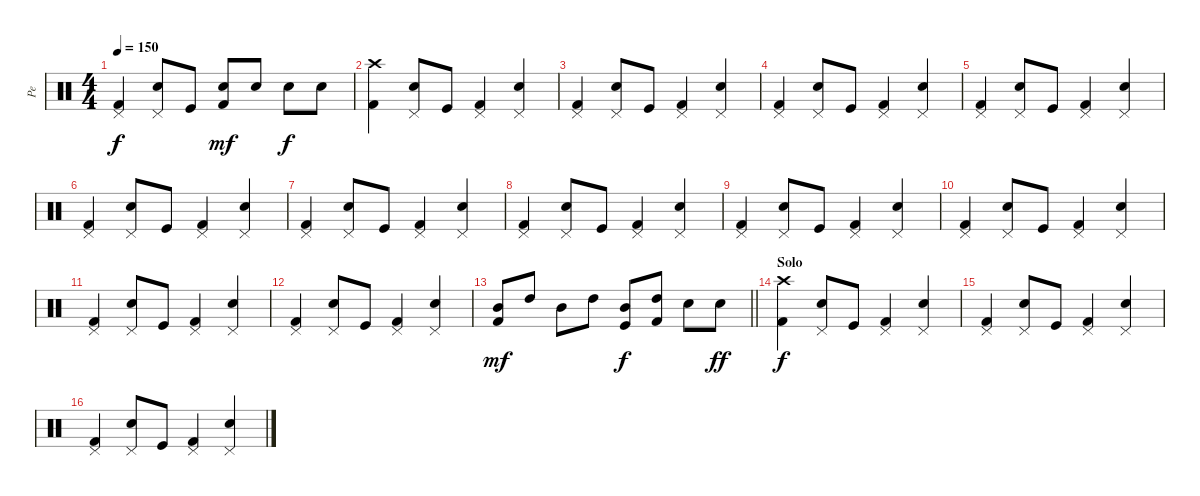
\track ("Pe" "Pe") {instrument percussion}
\staff {score}
\articulation defaults
\ts (4 4)
\tempo 150
\clef neutral
\ks c
("Kick (hit) 2" "Pedal Hi-Hat (hit)").4{dy f} ("Electric Snare (hit)" "Pedal Hi-Hat (hit)").8 "Kick (hit)".8 ("Kick (hit) 2" "Electric Snare (hit)").8{dy mf} "Electric Snare (hit)".8 "Electric Snare (hit)".8{dy f} "Electric Snare (hit)".8 |
("Kick (hit) 2" "Crash high (hit)").4 ("Electric Snare (hit)" "Pedal Hi-Hat (hit)").8 "Kick (hit)".8 ("Kick (hit) 2" "Pedal Hi-Hat (hit)").4 ("Electric Snare (hit)" "Pedal Hi-Hat (hit)").4 |
("Kick (hit) 2" "Pedal Hi-Hat (hit)").4 ("Electric Snare (hit)" "Pedal Hi-Hat (hit)").8 "Kick (hit)".8 ("Kick (hit) 2" "Pedal Hi-Hat (hit)").4 ("Electric Snare (hit)" "Pedal Hi-Hat (hit)").4 |
("Kick (hit) 2" "Pedal Hi-Hat (hit)").4 ("Electric Snare (hit)" "Pedal Hi-Hat (hit)").8 "Kick (hit)".8 ("Kick (hit) 2" "Pedal Hi-Hat (hit)").4 ("Electric Snare (hit)" "Pedal Hi-Hat (hit)").4 |
("Kick (hit) 2" "Pedal Hi-Hat (hit)").4 ("Electric Snare (hit)" "Pedal Hi-Hat (hit)").8 "Kick (hit)".8 ("Kick (hit) 2" "Pedal Hi-Hat (hit)").4 ("Electric Snare (hit)" "Pedal Hi-Hat (hit)").4 |
("Kick (hit) 2" "Pedal Hi-Hat (hit)").4 ("Electric Snare (hit)" "Pedal Hi-Hat (hit)").8 "Kick (hit)".8 ("Kick (hit) 2" "Pedal Hi-Hat (hit)").4 ("Electric Snare (hit)" "Pedal Hi-Hat (hit)").4 |
("Kick (hit) 2" "Pedal Hi-Hat (hit)").4 ("Electric Snare (hit)" "Pedal Hi-Hat (hit)").8 "Kick (hit)".8 ("Kick (hit) 2" "Pedal Hi-Hat (hit)").4 ("Electric Snare (hit)" "Pedal Hi-Hat (hit)").4 |
("Kick (hit) 2" "Pedal Hi-Hat (hit)").4 ("Electric Snare (hit)" "Pedal Hi-Hat (hit)").8 "Kick (hit)".8 ("Kick (hit) 2" "Pedal Hi-Hat (hit)").4 ("Electric Snare (hit)" "Pedal Hi-Hat (hit)").4 |
("Kick (hit) 2" "Pedal Hi-Hat (hit)").4 ("Electric Snare (hit)" "Pedal Hi-Hat (hit)").8 "Kick (hit)".8 ("Kick (hit) 2" "Pedal Hi-Hat (hit)").4 ("Electric Snare (hit)" "Pedal Hi-Hat (hit)").4 |
("Kick (hit) 2" "Pedal Hi-Hat (hit)").4 ("Electric Snare (hit)" "Pedal Hi-Hat (hit)").8 "Kick (hit)".8 ("Kick (hit) 2" "Pedal Hi-Hat (hit)").4 ("Electric Snare (hit)" "Pedal Hi-Hat (hit)").4 |
("Kick (hit) 2" "Pedal Hi-Hat (hit)").4 ("Electric Snare (hit)" "Pedal Hi-Hat (hit)").8 "Kick (hit)".8 ("Kick (hit) 2" "Pedal Hi-Hat (hit)").4 ("Electric Snare (hit)" "Pedal Hi-Hat (hit)").4 |
("Kick (hit) 2" "Pedal Hi-Hat (hit)").4 ("Electric Snare (hit)" "Pedal Hi-Hat (hit)").8 "Kick (hit)".8 ("Kick (hit) 2" "Pedal Hi-Hat (hit)").4 ("Electric Snare (hit)" "Pedal Hi-Hat (hit)").4 |
\barLineRight lightlight
("Kick (hit) 2" "Mid Tom (hit)").8{dy mf} "High Tom (hit)".8 "Mid Tom (hit)".8 "High Tom (hit)".8 ("Kick (hit)" "Mid Tom (hit)").8{dy f} ("Kick (hit) 2" "High Tom (hit)").8 "Electric Snare (hit)".8 "Electric Snare (hit)".8{dy ff} |
\section ("" "Solo")
("Kick (hit) 2" "Crash high (hit)").4{dy f} ("Electric Snare (hit)" "Pedal Hi-Hat (hit)").8 "Kick (hit)".8 ("Kick (hit) 2" "Pedal Hi-Hat (hit)").4 ("Electric Snare (hit)" "Pedal Hi-Hat (hit)").4 |
("Kick (hit) 2" "Pedal Hi-Hat (hit)").4 ("Electric Snare (hit)" "Pedal Hi-Hat (hit)").8 "Kick (hit)".8 ("Kick (hit) 2" "Pedal Hi-Hat (hit)").4 ("Electric Snare (hit)" "Pedal Hi-Hat (hit)").4 |
("Kick (hit) 2" "Pedal Hi-Hat (hit)").4 ("Electric Snare (hit)" "Pedal Hi-Hat (hit)").8 "Kick (hit)".8 ("Kick (hit) 2" "Pedal Hi-Hat (hit)").4 ("Electric Snare (hit)" "Pedal Hi-Hat (hit)").4
